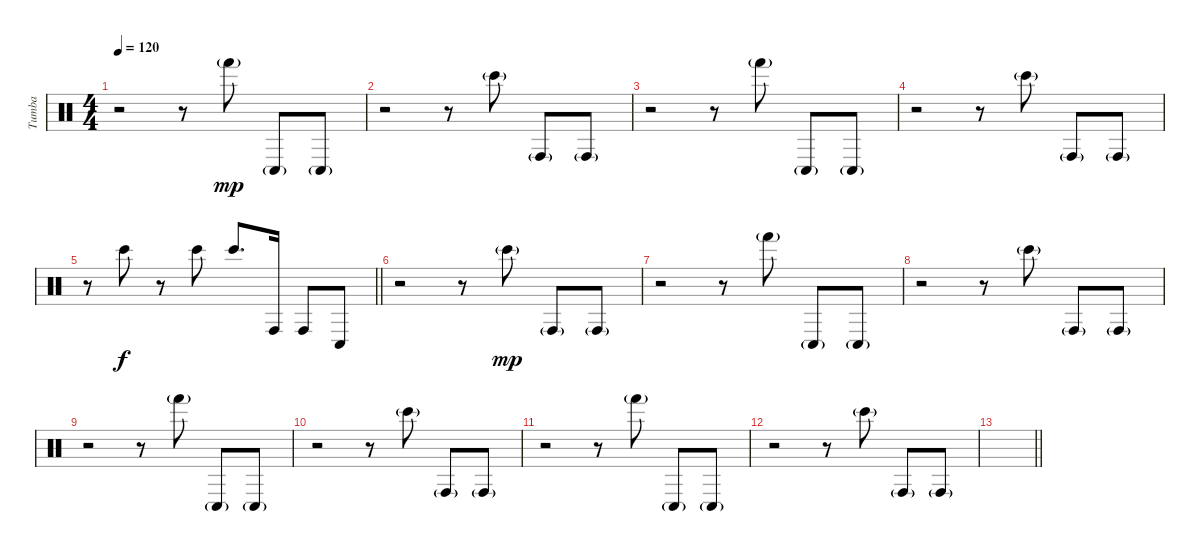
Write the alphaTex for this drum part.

\track ("Tumba" "Tumba") {instrument percussion}
\staff {score}
\articulation defaults
\ts (4 4)
\tempo 120
\clef neutral
\ks c
r.2{dy mp} r.8 "Hand (hit)"{g}.8 "Conga low (hit)"{g}.8 "Conga low (hit)"{g}.8 |
r.2 r.8 "Bongo High (hit)"{g}.8 "Conga high (hit)"{g}.8 "Conga high (hit)"{g}.8 |
r.2 r.8 "Hand (hit)"{g}.8 "Conga low (hit)"{g}.8 "Conga low (hit)"{g}.8 |
r.2 r.8 "Bongo High (hit)"{g}.8 "Conga high (hit)"{g}.8 "Conga high (hit)"{g}.8 |
\barLineRight lightlight
r.8 "Bongo High (hit)".8{dy f} r.8 "Bongo High (hit)".8 "Bongo High (hit)".8{d} "Conga high (hit)".16 "Conga high (hit)".8 "Conga low (hit)".8 |
\section ("" "")
r.2 r.8 "Bongo High (hit)"{g}.8{dy mp} "Conga high (hit)"{g}.8 "Conga high (hit)"{g}.8 |
r.2 r.8 "Hand (hit)"{g}.8 "Conga low (hit)"{g}.8 "Conga low (hit)"{g}.8 |
r.2 r.8 "Bongo High (hit)"{g}.8 "Conga high (hit)"{g}.8 "Conga high (hit)"{g}.8 |
r.2 r.8 "Hand (hit)"{g}.8 "Conga low (hit)"{g}.8 "Conga low (hit)"{g}.8 |
r.2 r.8 "Bongo High (hit)"{g}.8 "Conga high (hit)"{g}.8 "Conga high (hit)"{g}.8 |
r.2 r.8 "Hand (hit)"{g}.8 "Conga low (hit)"{g}.8 "Conga low (hit)"{g}.8 |
r.2 r.8 "Bongo High (hit)"{g}.8 "Conga high (hit)"{g}.8 "Conga high (hit)"{g}.8 |
\barLineRight lightlight
